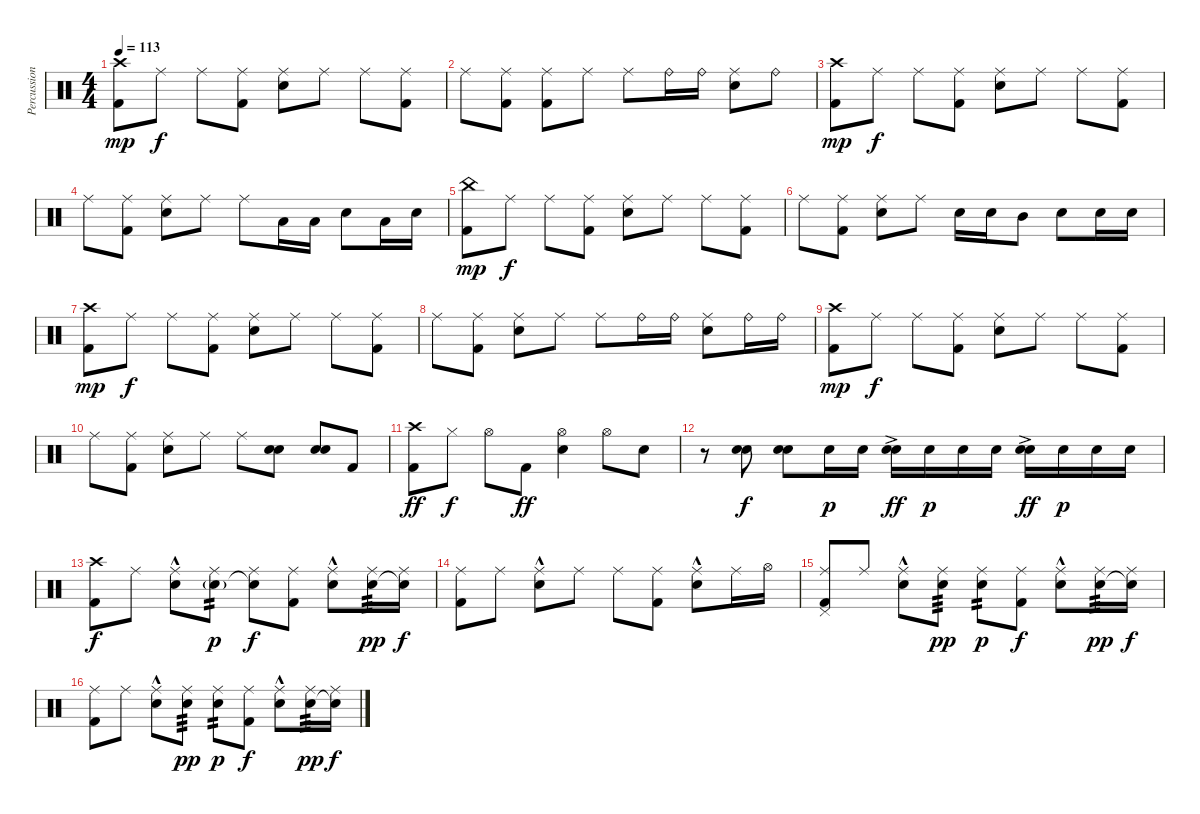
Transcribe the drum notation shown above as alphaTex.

\track ("Percussion" "Percussion") {instrument percussion}
\staff {score}
\articulation defaults
\ts (4 4)
\tempo 113
\clef neutral
\ks c
("Crash high (hit)" "Kick (hit) 2").8{dy mp} "Ride (middle)".8{dy f} "Ride (middle)".8 ("Ride (middle)" "Kick (hit) 2").8 ("Ride (middle)" "Snare (hit) 2").8 "Ride (middle)".8 "Ride (middle)".8 ("Ride (middle)" "Kick (hit) 2").8 |
"Ride (middle)".8 ("Ride (middle)" "Kick (hit) 2").8 ("Ride (middle)" "Kick (hit) 2").8 "Ride (middle)".8 "Ride (middle)".8 "Ride (bell)".16 "Ride (bell)".16 ("Ride (middle)" "Snare (hit) 2").8 "Ride (bell)".8 |
("Crash high (hit)" "Kick (hit) 2").8{dy mp} "Ride (middle)".8{dy f} "Ride (middle)".8 ("Ride (middle)" "Kick (hit) 2").8 ("Ride (middle)" "Snare (hit) 2").8 "Ride (middle)".8 "Ride (middle)".8 ("Ride (middle)" "Kick (hit) 2").8 |
"Ride (middle)".8 ("Ride (middle)" "Kick (hit) 2").8 ("Ride (middle)" "Snare (hit) 2").8 "Ride (middle)".8 "Ride (middle)".8 "Low Tom (hit)".16 "Low Tom (hit)".16 "Snare (hit) 2".8 "Low Tom (hit)".16 "Snare (hit) 2".16 |
("China (hit)" "Kick (hit) 2").8{dy mp} "Ride (middle)".8{dy f} "Ride (middle)".8 ("Ride (middle)" "Kick (hit) 2").8 ("Ride (middle)" "Snare (hit) 2").8 "Ride (middle)".8 "Ride (middle)".8 ("Ride (middle)" "Kick (hit) 2").8 |
"Ride (middle)".8 ("Ride (middle)" "Kick (hit) 2").8 ("Ride (middle)" "Snare (hit) 2").8 "Ride (middle)".8 "Snare (hit) 2".16 "Snare (hit) 2".16 "Mid Tom (hit)".8 "Snare (hit) 2".8 "Snare (hit) 2".16 "Snare (hit) 2".16 |
("Crash high (hit)" "Kick (hit) 2").8{dy mp} "Ride (middle)".8{dy f} "Ride (middle)".8 ("Ride (middle)" "Kick (hit) 2").8 ("Ride (middle)" "Snare (hit) 2").8 "Ride (middle)".8 "Ride (middle)".8 ("Ride (middle)" "Kick (hit) 2").8 |
"Ride (middle)".8 ("Ride (middle)" "Kick (hit) 2").8 ("Ride (middle)" "Snare (hit) 2").8 "Ride (middle)".8 "Ride (middle)".8 "Ride (bell)".16 "Ride (bell)".16 ("Ride (middle)" "Snare (hit) 2").8 "Ride (bell)".16 "Ride (bell)".16 |
("Crash high (hit)" "Kick (hit) 2").8{dy mp} "Ride (middle)".8{dy f} "Ride (middle)".8 ("Ride (middle)" "Kick (hit) 2").8 ("Ride (middle)" "Snare (hit) 2").8 "Ride (middle)".8 "Ride (middle)".8 ("Ride (middle)" "Kick (hit) 2").8 |
"Ride (middle)".8 ("Ride (middle)" "Kick (hit) 2").8 ("Ride (middle)" "Snare (hit) 2").8 "Ride (middle)".8 "Ride (middle)".8 ("Snare (hit) 2" "Snare (hit) 2").8{bu 60} ("Snare (hit) 2" "Snare (hit) 2").8{bd 60} "Kick (hit) 2".8 |
("Crash high (hit)" "Kick (hit) 2").8{dy ff} "Hi-Hat (closed)".8{dy f} "Hi-Hat (open)".8 "Kick (hit) 2".8{dy ff} ("Hi-Hat (open)" "Snare (hit) 2").4 "Hi-Hat (open)".8 "Snare (hit) 2".8 |
r.8 ("Snare (hit) 2" "Snare (hit) 2").8{bu 60 dy f} ("Snare (hit) 2" "Snare (hit) 2").8{bd 60} "Snare (hit) 2".16{dy p} "Snare (hit) 2".16 ("Snare (hit) 2"{ac} "Snare (hit) 2").16{bu 120 dy ff} "Snare (hit) 2".16{dy p} "Snare (hit) 2".16 "Snare (hit) 2".16 ("Snare (hit) 2"{ac} "Snare (hit) 2").16{bu 120 dy ff} "Snare (hit) 2".16{dy p} "Snare (hit) 2".16 "Snare (hit) 2".16 |
("Crash high (hit)" "Kick (hit) 2").8{dy f} "Ride (middle)".8 ("Ride (middle)" "Snare (hit) 2"{hac}).8 ("Ride (middle)" "Snare (hit) 2"{g}).8{tp 2 dy p} ("Ride (middle)" "Snare (hit) 2"{t}).8{dy f} ("Ride (middle)" "Kick (hit) 2").8 ("Ride (middle)" "Snare (hit) 2"{hac}).8 ("Ride (middle)" "Snare (hit) 2").16{tp 3 dy pp} ("Ride (middle)" "Snare (hit) 2"{t}).16{dy f} |
("Ride (middle)" "Kick (hit) 2").8 "Ride (middle)".8 ("Ride (middle)" "Snare (hit) 2"{hac}).8 "Ride (middle)".8 "Ride (middle)".8 ("Ride (middle)" "Kick (hit) 2").8 ("Ride (middle)" "Snare (hit) 2"{hac}).8 "Ride (middle)".16 "Hi-Hat (open)".16 |
("Ride (middle)" "Pedal Hi-Hat (hit)" "Kick (hit) 2").8 "Ride (middle)".8 ("Ride (middle)" "Snare (hit) 2"{hac}).8 ("Ride (middle)" "Snare (hit) 2").8{tp 3 dy pp} ("Ride (middle)" "Snare (hit) 2").8{tp 2 dy p} ("Ride (middle)" "Kick (hit) 2").8{dy f} ("Ride (middle)" "Snare (hit) 2"{hac}).8 ("Ride (middle)" "Snare (hit) 2").16{tp 3 dy pp} ("Ride (middle)" "Snare (hit) 2"{t}).16{dy f} |
("Ride (middle)" "Kick (hit) 2").8 "Ride (middle)".8 ("Ride (middle)" "Snare (hit) 2"{hac}).8 ("Ride (middle)" "Snare (hit) 2").8{tp 3 dy pp} ("Ride (middle)" "Snare (hit) 2").8{tp 2 dy p} ("Ride (middle)" "Kick (hit) 2").8{dy f} ("Ride (middle)" "Snare (hit) 2"{hac}).8 ("Ride (middle)" "Snare (hit) 2").16{tp 3 dy pp} ("Ride (middle)" "Snare (hit) 2"{t}).16{dy f}
